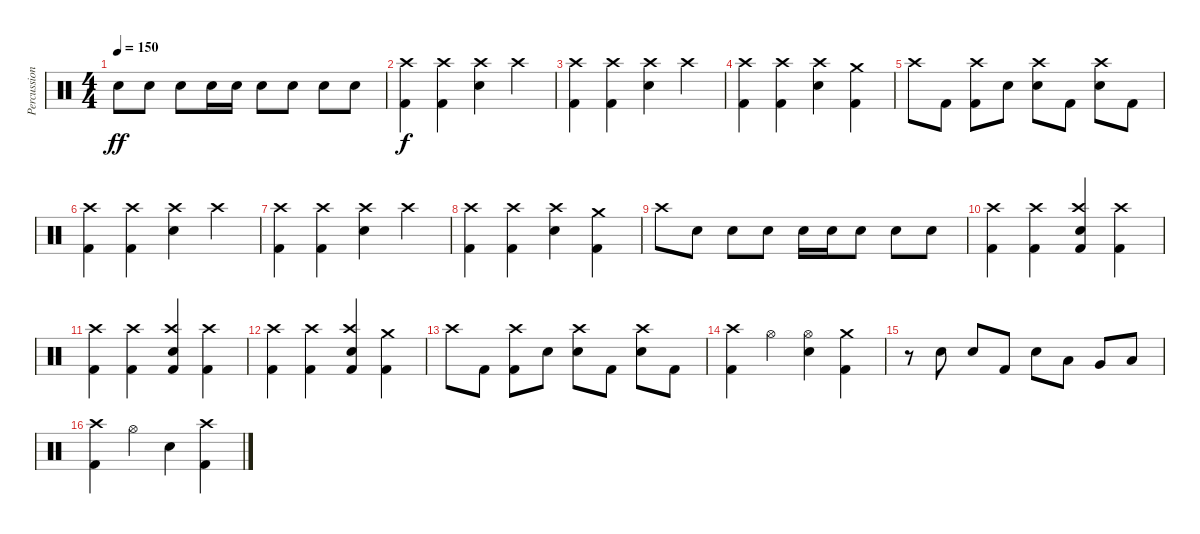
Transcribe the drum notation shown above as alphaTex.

\track ("Percussion" "Percussion") {instrument percussion}
\staff {score}
\articulation defaults
\ts (4 4)
\tempo 150
\clef neutral
\ks c "Snare (hit) 2".8{dy ff} "Snare (hit) 2".8 "Snare (hit) 2".8 "Snare (hit) 2".16 "Snare (hit) 2".16 "Snare (hit) 2".8 "Snare (hit) 2".8 "Snare (hit) 2".8 "Snare (hit) 2".8
|
("Crash high (hit)" "Kick (hit) 2").4{dy f} ("Crash high (hit)" "Kick (hit) 2").4 ("Crash high (hit)" "Snare (hit) 2").4 "Crash high (hit)".4 |
("Crash high (hit)" "Kick (hit) 2").4 ("Crash high (hit)" "Kick (hit) 2").4 ("Crash high (hit)" "Snare (hit) 2").4 "Crash high (hit)".4 |
("Crash high (hit)" "Kick (hit) 2").4 ("Crash high (hit)" "Kick (hit) 2").4 ("Crash high (hit)" "Snare (hit) 2").4 ("Crash medium (hit)" "Kick (hit) 2").4 |
"Crash high (hit)".8 "Kick (hit) 2".8 ("Crash high (hit)" "Kick (hit) 2").8 "Snare (hit) 2".8 ("Crash high (hit)" "Snare (hit) 2").8 "Kick (hit) 2".8 ("Crash high (hit)" "Snare (hit) 2").8 "Kick (hit) 2".8 |
("Crash high (hit)" "Kick (hit) 2").4 ("Crash high (hit)" "Kick (hit) 2").4 ("Crash high (hit)" "Snare (hit) 2").4 "Crash high (hit)".4 |
("Crash high (hit)" "Kick (hit) 2").4 ("Crash high (hit)" "Kick (hit) 2").4 ("Crash high (hit)" "Snare (hit) 2").4 "Crash high (hit)".4 |
("Crash high (hit)" "Kick (hit) 2").4 ("Crash high (hit)" "Kick (hit) 2").4 ("Crash high (hit)" "Snare (hit) 2").4 ("Crash medium (hit)" "Kick (hit) 2").4 |
"Crash high (hit)".8 "Snare (hit) 2".8 "Snare (hit) 2".8 "Snare (hit) 2".8 "Snare (hit) 2".16 "Snare (hit) 2".16 "Snare (hit) 2".8 "Snare (hit) 2".8 "Snare (hit) 2".8 |
("Crash high (hit)" "Kick (hit) 2").4 ("Crash high (hit)" "Kick (hit) 2").4 ("Crash high (hit)" "Snare (hit) 2" "Kick (hit) 2").4 ("Crash high (hit)" "Kick (hit) 2").4 |
("Crash high (hit)" "Kick (hit) 2").4 ("Crash high (hit)" "Kick (hit) 2").4 ("Crash high (hit)" "Snare (hit) 2" "Kick (hit) 2").4 ("Crash high (hit)" "Kick (hit) 2").4 |
("Crash high (hit)" "Kick (hit) 2").4 ("Crash high (hit)" "Kick (hit) 2").4 ("Crash high (hit)" "Snare (hit) 2" "Kick (hit) 2").4 ("Crash medium (hit)" "Kick (hit) 2").4 |
"Crash high (hit)".8 "Kick (hit) 2".8 ("Crash high (hit)" "Kick (hit) 2").8 "Snare (hit) 2".8 ("Crash high (hit)" "Snare (hit) 2").8 "Kick (hit) 2".8 ("Crash high (hit)" "Snare (hit) 2").8 "Kick (hit) 2".8 |
("Crash high (hit)" "Kick (hit) 2").4 "Hi-Hat (open)".4 ("Hi-Hat (open)" "Snare (hit) 2").4 ("Crash medium (hit)" "Kick (hit) 2").4 |
r.8 "Snare (hit) 2".8 "Snare (hit) 2".8 "Kick (hit) 2".8 "Snare (hit) 2".8 "Low Tom (hit)".8 "Very Low Tom (hit)".8 "Low Floor Tom (hit)".8 |
("Crash high (hit)" "Kick (hit) 2").4 "Hi-Hat (open)".4 "Snare (hit) 2".4 ("Crash high (hit)" "Kick (hit) 2").4
